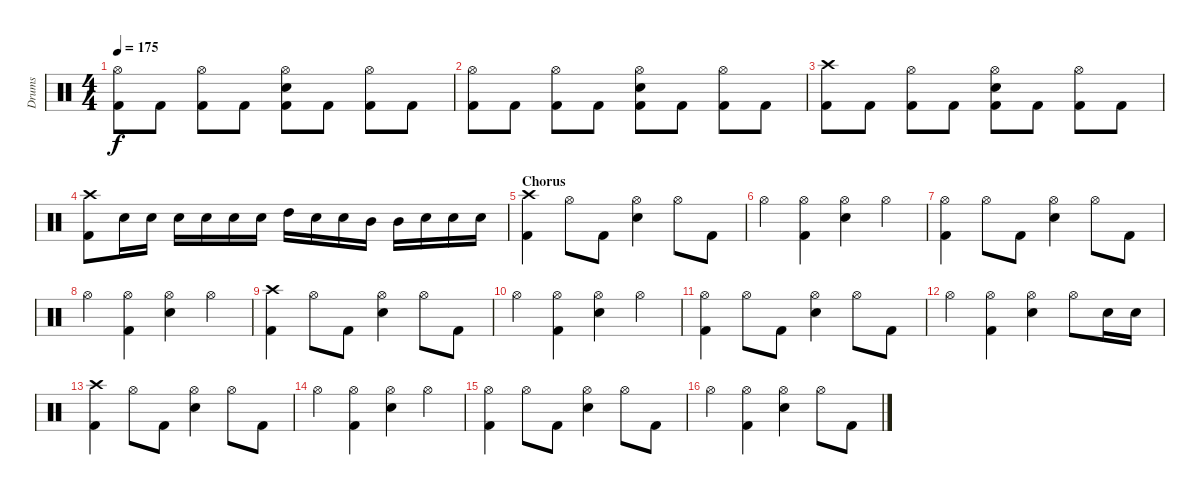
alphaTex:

\track ("Drums" "Drums") {instrument percussion}
\staff {score}
\articulation defaults
\ts (4 4)
\tempo 175
\clef neutral
\ks c
("Hi-Hat (open)" "Kick (hit) 2").8{dy f} "Kick (hit) 2".8 ("Hi-Hat (open)" "Kick (hit) 2").8 "Kick (hit) 2".8 ("Hi-Hat (open)" "Electric Snare (hit)" "Kick (hit) 2").8 "Kick (hit) 2".8 ("Hi-Hat (open)" "Kick (hit) 2").8 "Kick (hit) 2".8 |
("Hi-Hat (open)" "Kick (hit) 2").8 "Kick (hit) 2".8 ("Hi-Hat (open)" "Kick (hit) 2").8 "Kick (hit) 2".8 ("Hi-Hat (open)" "Electric Snare (hit)" "Kick (hit) 2").8 "Kick (hit) 2".8 ("Hi-Hat (open)" "Kick (hit) 2").8 "Kick (hit) 2".8 |
\section ("" "")
("Crash high (hit)" "Kick (hit) 2").8 "Kick (hit) 2".8 ("Hi-Hat (open)" "Kick (hit) 2").8 "Kick (hit) 2".8 ("Hi-Hat (open)" "Electric Snare (hit)" "Kick (hit) 2").8 "Kick (hit) 2".8 ("Hi-Hat (open)" "Kick (hit) 2").8 "Kick (hit) 2".8 |
("Crash high (hit)" "Kick (hit) 2").8 "Electric Snare (hit)".16 "Electric Snare (hit)".16 "Electric Snare (hit)".16 "Electric Snare (hit)".16 "Electric Snare (hit)".16 "Electric Snare (hit)".16 "High Tom (hit)".16 "Electric Snare (hit)".16 "Electric Snare (hit)".16 "Mid Tom (hit)".16 "Mid Tom (hit)".16 "Electric Snare (hit)".16 "Electric Snare (hit)".16 "Electric Snare (hit)".16 |
\section ("" "Chorus")
("Crash high (hit)" "Kick (hit) 2").4 "Hi-Hat (open)".8 "Kick (hit) 2".8 ("Hi-Hat (open)" "Electric Snare (hit)").4 "Hi-Hat (open)".8 "Kick (hit) 2".8 |
"Hi-Hat (open)".4 ("Hi-Hat (open)" "Kick (hit) 2").4 ("Hi-Hat (open)" "Electric Snare (hit)").4 "Hi-Hat (open)".4 |
("Hi-Hat (open)" "Kick (hit) 2").4 "Hi-Hat (open)".8 "Kick (hit) 2".8 ("Hi-Hat (open)" "Electric Snare (hit)").4 "Hi-Hat (open)".8 "Kick (hit) 2".8 |
"Hi-Hat (open)".4 ("Hi-Hat (open)" "Kick (hit) 2").4 ("Hi-Hat (open)" "Electric Snare (hit)").4 "Hi-Hat (open)".4 |
("Crash high (hit)" "Kick (hit) 2").4 "Hi-Hat (open)".8 "Kick (hit) 2".8 ("Hi-Hat (open)" "Electric Snare (hit)").4 "Hi-Hat (open)".8 "Kick (hit) 2".8 |
"Hi-Hat (open)".4 ("Hi-Hat (open)" "Kick (hit) 2").4 ("Hi-Hat (open)" "Electric Snare (hit)").4 "Hi-Hat (open)".4 |
("Hi-Hat (open)" "Kick (hit) 2").4 "Hi-Hat (open)".8 "Kick (hit) 2".8 ("Hi-Hat (open)" "Electric Snare (hit)").4 "Hi-Hat (open)".8 "Kick (hit) 2".8 |
"Hi-Hat (open)".4 ("Hi-Hat (open)" "Kick (hit) 2").4 ("Hi-Hat (open)" "Electric Snare (hit)").4 "Hi-Hat (open)".8 "Electric Snare (hit)".16 "Electric Snare (hit)".16 |
("Crash high (hit)" "Kick (hit) 2").4 "Hi-Hat (open)".8 "Kick (hit) 2".8 ("Hi-Hat (open)" "Electric Snare (hit)").4 "Hi-Hat (open)".8 "Kick (hit) 2".8 |
"Hi-Hat (open)".4 ("Hi-Hat (open)" "Kick (hit) 2").4 ("Hi-Hat (open)" "Electric Snare (hit)").4 "Hi-Hat (open)".4 |
("Hi-Hat (open)" "Kick (hit) 2").4 "Hi-Hat (open)".8 "Kick (hit) 2".8 ("Hi-Hat (open)" "Electric Snare (hit)").4 "Hi-Hat (open)".8 "Kick (hit) 2".8 |
"Hi-Hat (open)".4 ("Hi-Hat (open)" "Kick (hit) 2").4 ("Hi-Hat (open)" "Electric Snare (hit)").4 "Hi-Hat (open)".8 "Kick (hit) 2".8
